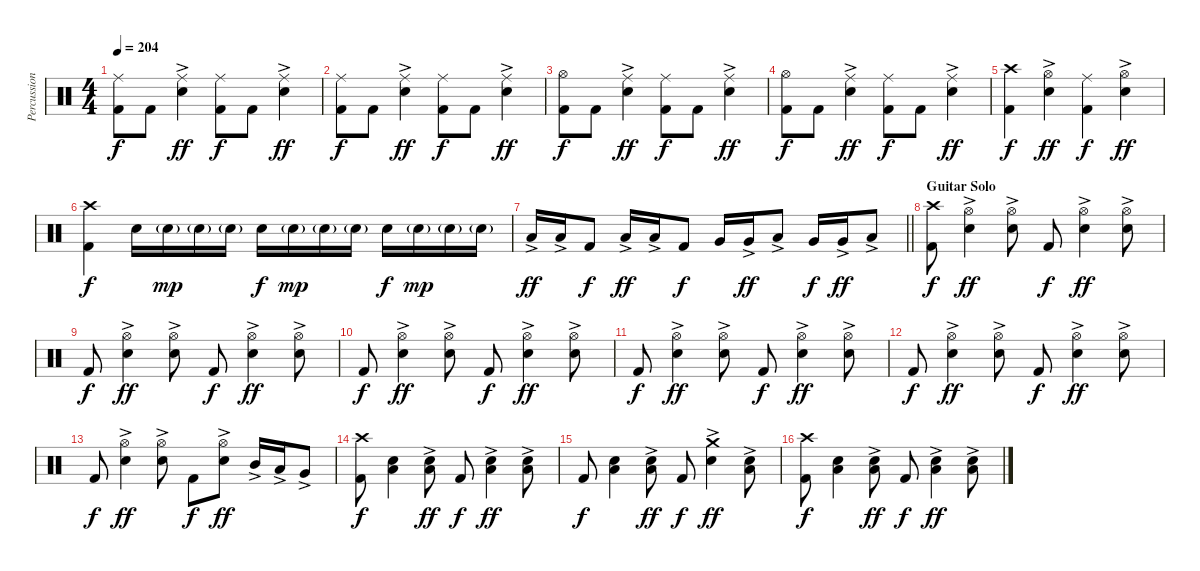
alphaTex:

\track ("Percussion" "Percussion") {instrument percussion}
\staff {score}
\articulation defaults
\ts (4 4)
\tempo 204
\clef neutral
\ks c
("Ride (middle)" "Kick (hit) 2").8{dy f} "Kick (hit) 2".8 ("Ride (middle)" "Electric Snare (hit)"{ac}).4{dy ff} ("Ride (middle)" "Kick (hit) 2").8{dy f} "Kick (hit) 2".8 ("Ride (middle)" "Electric Snare (hit)"{ac}).4{dy ff} |
("Ride (middle)" "Kick (hit) 2").8{dy f} "Kick (hit) 2".8 ("Ride (middle)" "Electric Snare (hit)"{ac}).4{dy ff} ("Ride (middle)" "Kick (hit) 2").8{dy f} "Kick (hit) 2".8 ("Ride (middle)" "Electric Snare (hit)"{ac}).4{dy ff} |
("Hi-Hat (open)" "Kick (hit) 2").8{dy f} "Kick (hit) 2".8 ("Ride (middle)" "Electric Snare (hit)"{ac}).4{dy ff} ("Ride (middle)" "Kick (hit) 2").8{dy f} "Kick (hit) 2".8 ("Ride (middle)" "Electric Snare (hit)"{ac}).4{dy ff} |
("Hi-Hat (open)" "Kick (hit) 2").8{dy f} "Kick (hit) 2".8 ("Ride (middle)" "Electric Snare (hit)"{ac}).4{dy ff} ("Ride (middle)" "Kick (hit) 2").8{dy f} "Kick (hit) 2".8 ("Ride (middle)" "Electric Snare (hit)"{ac}).4{dy ff} |
("Crash high (hit)" "Kick (hit) 2").4{dy f} ("Hi-Hat (open)" "Electric Snare (hit)"{ac}).4{dy ff} ("Ride (middle)" "Kick (hit) 2").4{dy f} ("Hi-Hat (open)" "Electric Snare (hit)"{ac}).4{dy ff} |
("Crash high (hit)" "Kick (hit) 2").4{dy f} "Electric Snare (hit)".16 "Electric Snare (hit)"{g}.16{dy mp} "Electric Snare (hit)"{g}.16 "Electric Snare (hit)"{g}.16 "Electric Snare (hit)".16{dy f} "Electric Snare (hit)"{g}.16{dy mp} "Electric Snare (hit)"{g}.16 "Electric Snare (hit)"{g}.16 "Electric Snare (hit)".16{dy f} "Electric Snare (hit)"{g}.16{dy mp} "Electric Snare (hit)"{g}.16 "Electric Snare (hit)"{g}.16 |
\barLineRight lightlight "Low Floor Tom (hit)"{ac}.16{dy ff} "Low Floor Tom (hit)"{ac}.16 "Kick (hit) 2".8{dy f} "Low Floor Tom (hit)"{ac}.16{dy ff} "Low Floor Tom (hit)"{ac}.16 "Kick (hit) 2".8{dy f} "Very Low Tom (hit)".16 "Very Low Tom (hit)"{ac}.16{dy ff} "Low Floor Tom (hit)"{ac}.8 "Very Low Tom (hit)".16{dy f} "Very Low Tom (hit)"{ac}.16{dy ff} "Low Floor Tom (hit)"{ac}.8
|
\section ("" "Guitar Solo")
("Crash high (hit)" "Kick (hit) 2").8{dy f} ("Hi-Hat (open)" "Electric Snare (hit)"{ac}).4{dy ff} ("Hi-Hat (open)" "Electric Snare (hit)"{ac}).8 "Kick (hit) 2".8{dy f} ("Hi-Hat (open)" "Electric Snare (hit)"{ac}).4{dy ff} ("Hi-Hat (open)" "Electric Snare (hit)"{ac}).8 |
"Kick (hit) 2".8{dy f} ("Hi-Hat (open)" "Electric Snare (hit)"{ac}).4{dy ff} ("Hi-Hat (open)" "Electric Snare (hit)"{ac}).8 "Kick (hit) 2".8{dy f} ("Hi-Hat (open)" "Electric Snare (hit)"{ac}).4{dy ff} ("Hi-Hat (open)" "Electric Snare (hit)"{ac}).8 |
"Kick (hit) 2".8{dy f} ("Hi-Hat (open)" "Electric Snare (hit)"{ac}).4{dy ff} ("Hi-Hat (open)" "Electric Snare (hit)"{ac}).8 "Kick (hit) 2".8{dy f} ("Hi-Hat (open)" "Electric Snare (hit)"{ac}).4{dy ff} ("Hi-Hat (open)" "Electric Snare (hit)"{ac}).8 |
"Kick (hit) 2".8{dy f} ("Hi-Hat (open)" "Electric Snare (hit)"{ac}).4{dy ff} ("Hi-Hat (open)" "Electric Snare (hit)"{ac}).8 "Kick (hit) 2".8{dy f} ("Hi-Hat (open)" "Electric Snare (hit)"{ac}).4{dy ff} ("Hi-Hat (open)" "Electric Snare (hit)"{ac}).8 |
"Kick (hit) 2".8{dy f} ("Hi-Hat (open)" "Electric Snare (hit)"{ac}).4{dy ff} ("Hi-Hat (open)" "Electric Snare (hit)"{ac}).8 "Kick (hit) 2".8{dy f} ("Hi-Hat (open)" "Electric Snare (hit)"{ac}).4{dy ff} ("Hi-Hat (open)" "Electric Snare (hit)"{ac}).8 |
"Kick (hit) 2".8{dy f} ("Hi-Hat (open)" "Electric Snare (hit)"{ac}).4{dy ff} ("Hi-Hat (open)" "Electric Snare (hit)"{ac}).8 "Kick (hit) 2".8{dy f} ("Hi-Hat (open)" "Electric Snare (hit)"{ac}).8{dy ff} "Mid Tom (hit)"{ac}.16 "Low Tom (hit)"{ac}.16 "Very Low Tom (hit)"{ac}.8 |
("Crash high (hit)" "Kick (hit) 2").8{dy f} ("Low Tom (hit)" "Electric Snare (hit)").4 ("Low Tom (hit)" "Electric Snare (hit)"{ac}).8{dy ff} "Kick (hit) 2".8{dy f} ("Low Tom (hit)" "Electric Snare (hit)"{ac}).4{dy ff} ("Low Tom (hit)" "Electric Snare (hit)"{ac}).8 |
"Kick (hit) 2".8{dy f} ("Low Tom (hit)" "Electric Snare (hit)").4 ("Low Tom (hit)" "Electric Snare (hit)"{ac}).8{dy ff} "Kick (hit) 2".8{dy f} ("Crash medium (hit)" "Electric Snare (hit)"{ac}).4{dy ff} ("Low Tom (hit)" "Electric Snare (hit)"{ac}).8 |
("Crash high (hit)" "Kick (hit) 2").8{dy f} ("Low Tom (hit)" "Electric Snare (hit)").4 ("Low Tom (hit)" "Electric Snare (hit)"{ac}).8{dy ff} "Kick (hit) 2".8{dy f} ("Low Tom (hit)" "Electric Snare (hit)"{ac}).4{dy ff} ("Low Tom (hit)" "Electric Snare (hit)"{ac}).8
